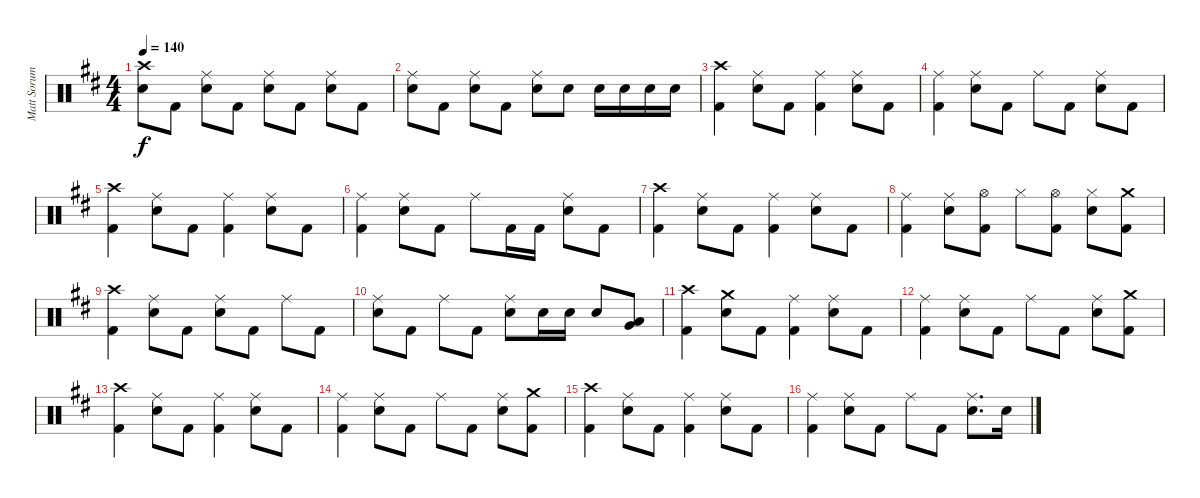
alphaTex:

\track ("Matt Sorum - Drums" "Matt Sorum") {instrument percussion}
\staff {score}
\articulation defaults
\ts (4 4)
\tempo 140
\clef neutral
\ks d
("Crash high (hit)" "Snare (hit) 2").8{dy f} "Kick (hit) 2".8 ("Ride (middle)" "Snare (hit) 2").8 "Kick (hit) 2".8 ("Ride (middle)" "Snare (hit) 2").8 "Kick (hit) 2".8 ("Ride (middle)" "Snare (hit) 2").8 "Kick (hit) 2".8 |
("Ride (middle)" "Snare (hit) 2").8 "Kick (hit) 2".8 ("Ride (middle)" "Snare (hit) 2").8 "Kick (hit) 2".8 ("Ride (middle)" "Snare (hit) 2").8 "Snare (hit) 2".8 "Snare (hit) 2".16 "Snare (hit) 2".16 "Snare (hit) 2".16 "Snare (hit) 2".16 |
("Crash high (hit)" "Kick (hit) 2").4 ("Ride (middle)" "Snare (hit) 2").8 "Kick (hit) 2".8 ("Ride (middle)" "Kick (hit) 2").4 ("Ride (middle)" "Snare (hit) 2").8 "Kick (hit) 2".8 |
("Ride (middle)" "Kick (hit) 2").4 ("Ride (middle)" "Snare (hit) 2").8 "Kick (hit) 2".8 "Ride (middle)".8 "Kick (hit) 2".8 ("Ride (middle)" "Snare (hit) 2").8 "Kick (hit) 2".8 |
("Crash high (hit)" "Kick (hit) 2").4 ("Ride (middle)" "Snare (hit) 2").8 "Kick (hit) 2".8 ("Ride (middle)" "Kick (hit) 2").4 ("Ride (middle)" "Snare (hit) 2").8 "Kick (hit) 2".8 |
("Ride (middle)" "Kick (hit) 2").4 ("Ride (middle)" "Snare (hit) 2").8 "Kick (hit) 2".8 "Ride (middle)".8 "Kick (hit) 2".16 "Kick (hit) 2".16 ("Ride (middle)" "Snare (hit) 2").8 "Kick (hit) 2".8 |
("Crash high (hit)" "Kick (hit) 2").4 ("Ride (middle)" "Snare (hit) 2").8 "Kick (hit) 2".8 ("Ride (middle)" "Kick (hit) 2").4 ("Ride (middle)" "Snare (hit) 2").8 "Kick (hit) 2".8 |
("Ride (middle)" "Kick (hit) 2").4 ("Ride (middle)" "Snare (hit) 2").8 ("Hi-Hat (open)" "Kick (hit) 2").8 "Hi-Hat (closed)".8 ("Hi-Hat (open)" "Kick (hit) 2").8 ("Hi-Hat (closed)" "Snare (hit) 2").8 ("Crash medium (hit)" "Kick (hit) 2").8 |
("Crash high (hit)" "Kick (hit) 2").4 ("Ride (middle)" "Snare (hit) 2").8 "Kick (hit) 2".8 ("Ride (middle)" "Snare (hit) 2").8 "Kick (hit) 2".8 "Ride (middle)".8 "Kick (hit) 2".8 |
("Ride (middle)" "Snare (hit) 2").8 "Kick (hit) 2".8 "Ride (middle)".8 "Kick (hit) 2".8 ("Ride (middle)" "Snare (hit) 2").8 "Snare (hit) 2".16 "Snare (hit) 2".16 "Snare (hit) 2".8 ("Very Low Tom (hit)" "Low Tom (hit)").8 |
("Crash high (hit)" "Kick (hit) 2").4 ("Crash medium (hit)" "Snare (hit) 2").8 "Kick (hit) 2".8 ("Ride (middle)" "Kick (hit) 2").4 ("Ride (middle)" "Snare (hit) 2").8 "Kick (hit) 2".8 |
("Ride (middle)" "Kick (hit) 2").4 ("Ride (middle)" "Snare (hit) 2").8 "Kick (hit) 2".8 "Ride (middle)".8 "Kick (hit) 2".8 ("Ride (middle)" "Snare (hit) 2").8 ("Crash medium (hit)" "Kick (hit) 2").8 |
("Crash high (hit)" "Kick (hit) 2").4 ("Ride (middle)" "Snare (hit) 2").8 "Kick (hit) 2".8 ("Ride (middle)" "Kick (hit) 2").4 ("Ride (middle)" "Snare (hit) 2").8 "Kick (hit) 2".8 |
("Ride (middle)" "Kick (hit) 2").4 ("Ride (middle)" "Snare (hit) 2").8 "Kick (hit) 2".8 "Ride (middle)".8 "Kick (hit) 2".8 ("Ride (middle)" "Snare (hit) 2").8 ("Crash medium (hit)" "Kick (hit) 2").8 |
("Crash high (hit)" "Kick (hit) 2").4 ("Ride (middle)" "Snare (hit) 2").8 "Kick (hit) 2".8 ("Ride (middle)" "Kick (hit) 2").4 ("Ride (middle)" "Snare (hit) 2").8 "Kick (hit) 2".8 |
("Ride (middle)" "Kick (hit) 2").4 ("Ride (middle)" "Snare (hit) 2").8 "Kick (hit) 2".8 "Ride (middle)".8 "Kick (hit) 2".8 ("Ride (middle)" "Snare (hit) 2").8{d} "Snare (hit) 2".16
